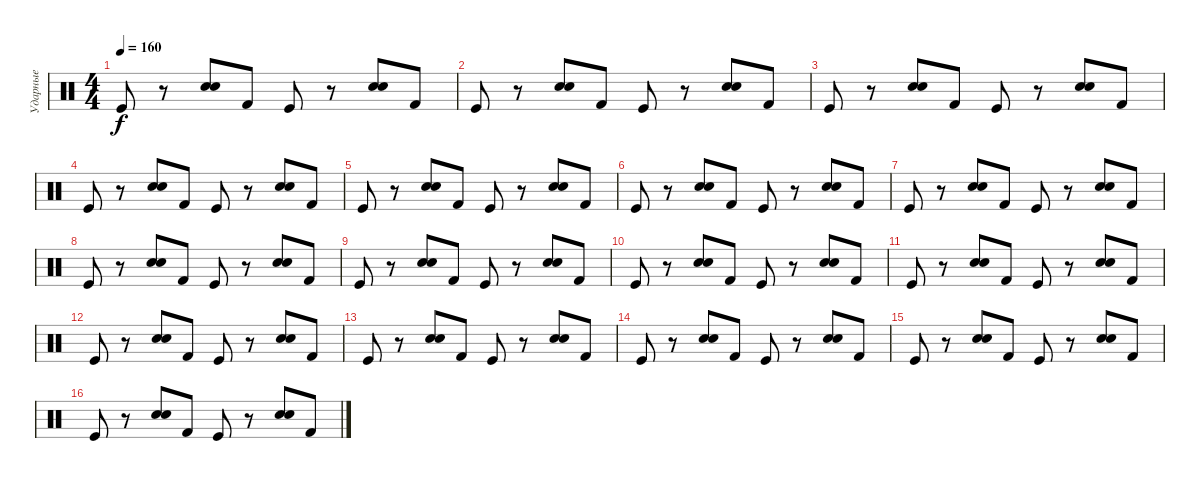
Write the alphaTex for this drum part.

\track ("Ударные" "Ударные") {instrument percussion}
\staff {score}
\articulation defaults
\ts (4 4)
\tempo 160
\clef neutral
\ks c "Kick (hit)".8{dy f}
r.8 ("Electric Snare (hit)" "Snare (hit) 2").8 "Kick (hit) 2".8 "Kick (hit)".8 r.8 ("Electric Snare (hit)" "Snare (hit) 2").8 "Kick (hit) 2".8 |
"Kick (hit)".8 r.8 ("Electric Snare (hit)" "Snare (hit) 2").8 "Kick (hit) 2".8 "Kick (hit)".8 r.8 ("Electric Snare (hit)" "Snare (hit) 2").8 "Kick (hit) 2".8 |
"Kick (hit)".8 r.8 ("Electric Snare (hit)" "Snare (hit) 2").8 "Kick (hit) 2".8 "Kick (hit)".8 r.8 ("Electric Snare (hit)" "Snare (hit) 2").8 "Kick (hit) 2".8 |
"Kick (hit)".8 r.8 ("Electric Snare (hit)" "Snare (hit) 2").8 "Kick (hit) 2".8 "Kick (hit)".8 r.8 ("Electric Snare (hit)" "Snare (hit) 2").8 "Kick (hit) 2".8 |
"Kick (hit)".8 r.8 ("Electric Snare (hit)" "Snare (hit) 2").8 "Kick (hit) 2".8 "Kick (hit)".8 r.8 ("Electric Snare (hit)" "Snare (hit) 2").8 "Kick (hit) 2".8 |
"Kick (hit)".8 r.8 ("Electric Snare (hit)" "Snare (hit) 2").8 "Kick (hit) 2".8 "Kick (hit)".8 r.8 ("Electric Snare (hit)" "Snare (hit) 2").8 "Kick (hit) 2".8 |
"Kick (hit)".8 r.8 ("Electric Snare (hit)" "Snare (hit) 2").8 "Kick (hit) 2".8 "Kick (hit)".8 r.8 ("Electric Snare (hit)" "Snare (hit) 2").8 "Kick (hit) 2".8 |
"Kick (hit)".8 r.8 ("Electric Snare (hit)" "Snare (hit) 2").8 "Kick (hit) 2".8 "Kick (hit)".8 r.8 ("Electric Snare (hit)" "Snare (hit) 2").8 "Kick (hit) 2".8 |
"Kick (hit)".8 r.8 ("Electric Snare (hit)" "Snare (hit) 2").8 "Kick (hit) 2".8 "Kick (hit)".8 r.8 ("Electric Snare (hit)" "Snare (hit) 2").8 "Kick (hit) 2".8 |
"Kick (hit)".8 r.8 ("Electric Snare (hit)" "Snare (hit) 2").8 "Kick (hit) 2".8 "Kick (hit)".8 r.8 ("Electric Snare (hit)" "Snare (hit) 2").8 "Kick (hit) 2".8 |
"Kick (hit)".8 r.8 ("Electric Snare (hit)" "Snare (hit) 2").8 "Kick (hit) 2".8 "Kick (hit)".8 r.8 ("Electric Snare (hit)" "Snare (hit) 2").8 "Kick (hit) 2".8 |
"Kick (hit)".8 r.8 ("Electric Snare (hit)" "Snare (hit) 2").8 "Kick (hit) 2".8 "Kick (hit)".8 r.8 ("Electric Snare (hit)" "Snare (hit) 2").8 "Kick (hit) 2".8 |
"Kick (hit)".8 r.8 ("Electric Snare (hit)" "Snare (hit) 2").8 "Kick (hit) 2".8 "Kick (hit)".8 r.8 ("Electric Snare (hit)" "Snare (hit) 2").8 "Kick (hit) 2".8 |
"Kick (hit)".8 r.8 ("Electric Snare (hit)" "Snare (hit) 2").8 "Kick (hit) 2".8 "Kick (hit)".8 r.8 ("Electric Snare (hit)" "Snare (hit) 2").8 "Kick (hit) 2".8 |
"Kick (hit)".8 r.8 ("Electric Snare (hit)" "Snare (hit) 2").8 "Kick (hit) 2".8 "Kick (hit)".8 r.8 ("Electric Snare (hit)" "Snare (hit) 2").8 "Kick (hit) 2".8 |
"Kick (hit)".8 r.8 ("Electric Snare (hit)" "Snare (hit) 2").8 "Kick (hit) 2".8 "Kick (hit)".8 r.8 ("Electric Snare (hit)" "Snare (hit) 2").8 "Kick (hit) 2".8
